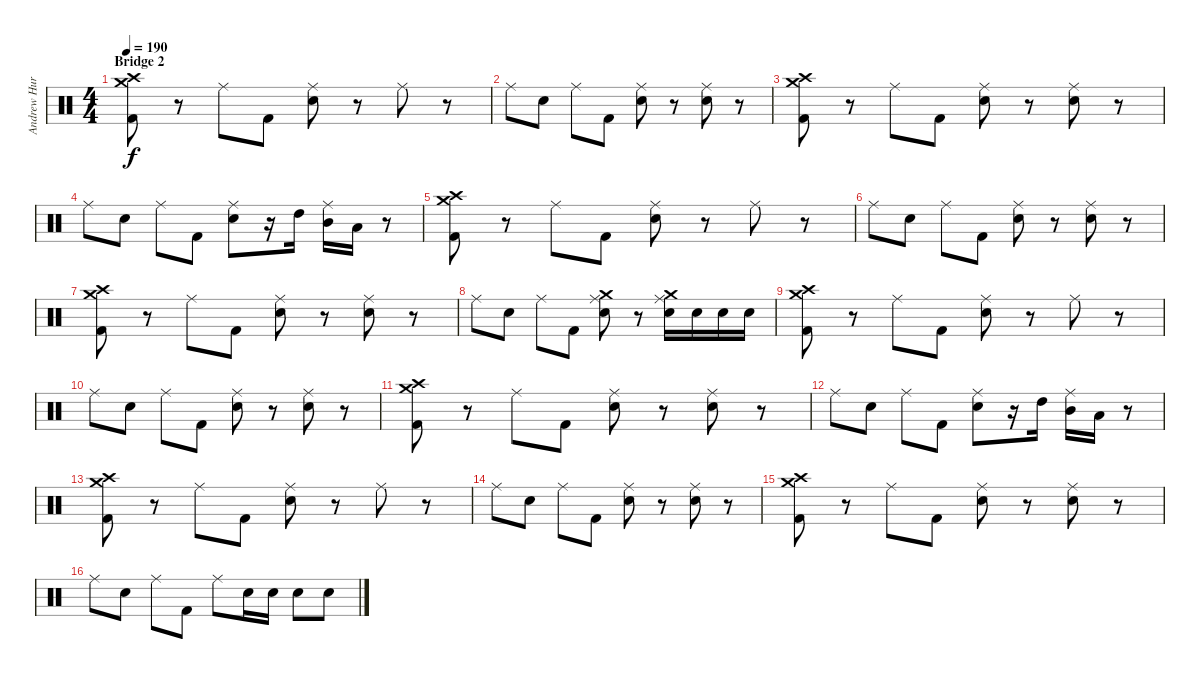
\track ("Andrew Hurley (Drums)" "Andrew Hur") {instrument percussion}
\staff {score}
\articulation defaults
\ts (4 4)
\section ("" "Bridge 2")
\tempo 190
\clef neutral
\ks c
("Crash high (hit)" "Crash medium (hit)" "Kick (hit) 2").8{dy f} r.8 "Ride (middle)".8 "Kick (hit) 2".8 ("Ride (middle)" "Electric Snare (hit)").8 r.8 "Ride (middle)".8 r.8 |
"Ride (middle)".8 "Electric Snare (hit)".8 "Ride (middle)".8 "Kick (hit) 2".8 ("Ride (middle)" "Electric Snare (hit)").8 r.8 ("Ride (middle)" "Electric Snare (hit)").8 r.8 |
("Crash high (hit)" "Crash medium (hit)" "Kick (hit) 2").8 r.8 "Ride (middle)".8 "Kick (hit) 2".8 ("Ride (middle)" "Electric Snare (hit)").8 r.8 ("Ride (middle)" "Electric Snare (hit)").8 r.8 |
"Ride (middle)".8 "Electric Snare (hit)".8 "Ride (middle)".8 "Kick (hit) 2".8 ("Ride (middle)" "Electric Snare (hit)").8 r.16 "High Tom (hit)".16 ("Ride (middle)" "Mid Tom (hit)").16 "Low Tom (hit)".16 r.8 |
("Crash high (hit)" "Crash medium (hit)" "Kick (hit) 2").8 r.8 "Ride (middle)".8 "Kick (hit) 2".8 ("Ride (middle)" "Electric Snare (hit)").8 r.8 "Ride (middle)".8 r.8 |
"Ride (middle)".8 "Electric Snare (hit)".8 "Ride (middle)".8 "Kick (hit) 2".8 ("Ride (middle)" "Electric Snare (hit)").8 r.8 ("Ride (middle)" "Electric Snare (hit)").8 r.8 |
("Crash medium (hit)" "Crash high (hit)" "Kick (hit) 2").8 r.8 "Ride (middle)".8 "Kick (hit) 2".8 ("Ride (middle)" "Electric Snare (hit)").8 r.8 ("Ride (middle)" "Electric Snare (hit)").8 r.8 |
"Ride (middle)".8 "Electric Snare (hit)".8 "Ride (middle)".8 "Kick (hit) 2".8 ("Crash medium (hit)" "Ride (middle)" "Electric Snare (hit)").8 r.8 ("Crash medium (hit)" "Ride (middle)" "Electric Snare (hit)").16 "Electric Snare (hit)".16 "Electric Snare (hit)".16 "Electric Snare (hit)".16 |
("Crash high (hit)" "Crash medium (hit)" "Kick (hit) 2").8 r.8 "Ride (middle)".8 "Kick (hit) 2".8 ("Ride (middle)" "Electric Snare (hit)").8 r.8 "Ride (middle)".8 r.8 |
"Ride (middle)".8 "Electric Snare (hit)".8 "Ride (middle)".8 "Kick (hit) 2".8 ("Ride (middle)" "Electric Snare (hit)").8 r.8 ("Ride (middle)" "Electric Snare (hit)").8 r.8 |
("Crash high (hit)" "Crash medium (hit)" "Kick (hit) 2").8 r.8 "Ride (middle)".8 "Kick (hit) 2".8 ("Ride (middle)" "Electric Snare (hit)").8 r.8 ("Ride (middle)" "Electric Snare (hit)").8 r.8 |
"Ride (middle)".8 "Electric Snare (hit)".8 "Ride (middle)".8 "Kick (hit) 2".8 ("Ride (middle)" "Electric Snare (hit)").8 r.16 "High Tom (hit)".16 ("Ride (middle)" "Mid Tom (hit)").16 "Low Tom (hit)".16 r.8 |
("Crash high (hit)" "Crash medium (hit)" "Kick (hit) 2").8 r.8 "Ride (middle)".8 "Kick (hit) 2".8 ("Ride (middle)" "Electric Snare (hit)").8 r.8 "Ride (middle)".8 r.8 |
"Ride (middle)".8 "Electric Snare (hit)".8 "Ride (middle)".8 "Kick (hit) 2".8 ("Ride (middle)" "Electric Snare (hit)").8 r.8 ("Ride (middle)" "Electric Snare (hit)").8 r.8 |
("Crash medium (hit)" "Crash high (hit)" "Kick (hit) 2").8 r.8 "Ride (middle)".8 "Kick (hit) 2".8 ("Ride (middle)" "Electric Snare (hit)").8 r.8 ("Ride (middle)" "Electric Snare (hit)").8 r.8 |
"Ride (middle)".8 "Electric Snare (hit)".8 "Ride (middle)".8 "Kick (hit) 2".8 "Ride (middle)".8 "Electric Snare (hit)".16 "Electric Snare (hit)".16 "Electric Snare (hit)".8 "Electric Snare (hit)".8
